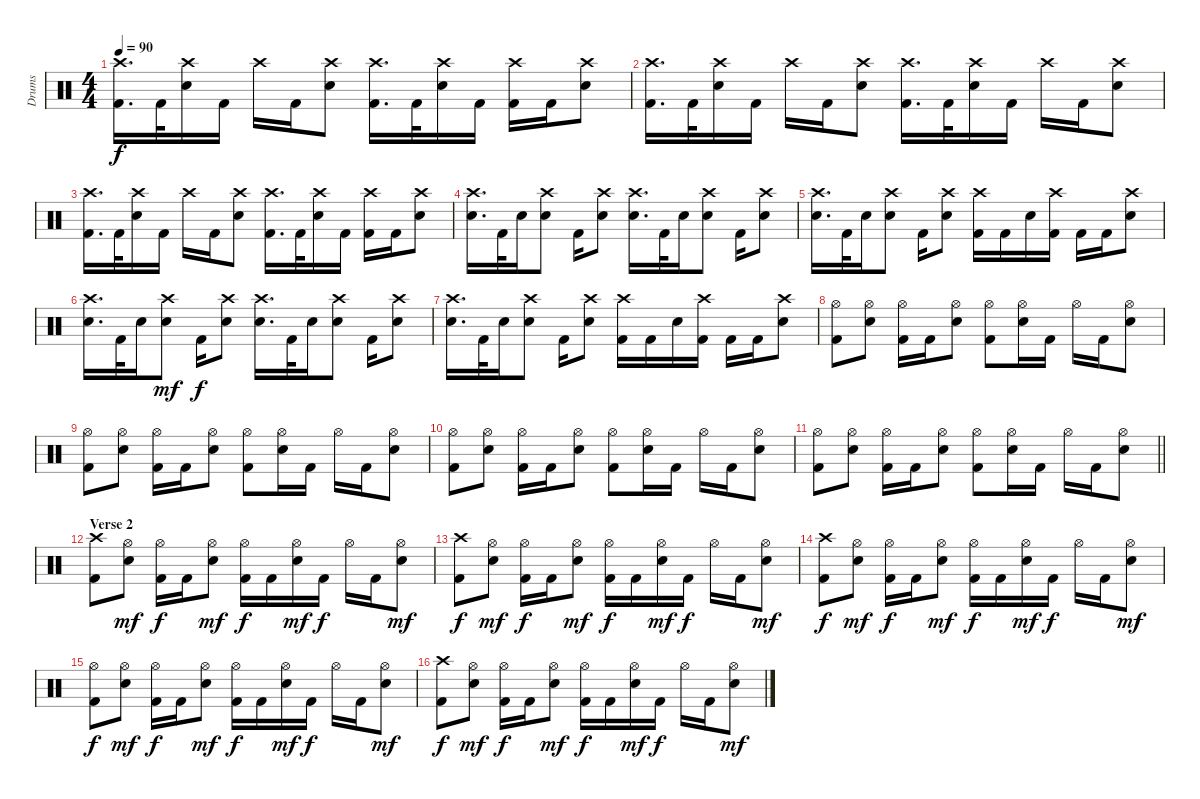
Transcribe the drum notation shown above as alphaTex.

\track ("Drums" "Drums") {instrument percussion}
\staff {score}
\articulation defaults
\ts (4 4)
\tempo 90
\clef neutral
\ks c
("Crash high (hit)" "Kick (hit) 2").16{d dy f} "Kick (hit) 2".32 ("Crash high (hit)" "Snare (hit) 2").16 "Kick (hit) 2".16 "Crash high (hit)".16 "Kick (hit) 2".16 ("Crash high (hit)" "Snare (hit) 2").8 ("Crash high (hit)" "Kick (hit) 2").16{d} "Kick (hit) 2".32 ("Crash high (hit)" "Snare (hit) 2").16 "Kick (hit) 2".16 ("Crash high (hit)" "Kick (hit) 2").16 "Kick (hit) 2".16 ("Crash high (hit)" "Snare (hit) 2").8 |
("Crash high (hit)" "Kick (hit) 2").16{d} "Kick (hit) 2".32 ("Crash high (hit)" "Snare (hit) 2").16 "Kick (hit) 2".16 "Crash high (hit)".16 "Kick (hit) 2".16 ("Crash high (hit)" "Snare (hit) 2").8 ("Crash high (hit)" "Kick (hit) 2").16{d} "Kick (hit) 2".32 ("Crash high (hit)" "Snare (hit) 2").16 "Kick (hit) 2".16 "Crash high (hit)".16 "Kick (hit) 2".16 ("Crash high (hit)" "Snare (hit) 2").8 |
("Crash high (hit)" "Kick (hit) 2").16{d} "Kick (hit) 2".32 ("Crash high (hit)" "Snare (hit) 2").16 "Kick (hit) 2".16 "Crash high (hit)".16 "Kick (hit) 2".16 ("Crash high (hit)" "Snare (hit) 2").8 ("Crash high (hit)" "Kick (hit) 2").16{d} "Kick (hit) 2".32 ("Crash high (hit)" "Snare (hit) 2").16 "Kick (hit) 2".16 ("Crash high (hit)" "Kick (hit) 2").16 "Kick (hit) 2".16 ("Crash high (hit)" "Snare (hit) 2").8 |
("Crash high (hit)" "Snare (hit) 2").16{d} "Kick (hit) 2".32 "Snare (hit) 2".16 ("Crash high (hit)" "Snare (hit) 2").8 "Kick (hit) 2".16 ("Crash high (hit)" "Snare (hit) 2").8 ("Crash high (hit)" "Snare (hit) 2").16{d} "Kick (hit) 2".32 "Snare (hit) 2".16 ("Crash high (hit)" "Snare (hit) 2").8 "Kick (hit) 2".16 ("Crash high (hit)" "Snare (hit) 2").8 |
("Crash high (hit)" "Snare (hit) 2").16{d} "Kick (hit) 2".32 "Snare (hit) 2".16 ("Crash high (hit)" "Snare (hit) 2").8 "Kick (hit) 2".16 ("Crash high (hit)" "Snare (hit) 2").8 ("Crash high (hit)" "Kick (hit) 2").16 "Kick (hit) 2".16 "Snare (hit) 2".16 ("Crash high (hit)" "Kick (hit) 2").16 "Kick (hit) 2".16 "Kick (hit) 2".16 ("Crash high (hit)" "Snare (hit) 2").8 |
("Crash high (hit)" "Snare (hit) 2").16{d} "Kick (hit) 2".32 "Snare (hit) 2".16 ("Crash high (hit)" "Snare (hit) 2").8{dy mf} "Kick (hit) 2".16{dy f} ("Crash high (hit)" "Snare (hit) 2").8 ("Crash high (hit)" "Snare (hit) 2").16{d} "Kick (hit) 2".32 "Snare (hit) 2".16 ("Crash high (hit)" "Snare (hit) 2").8 "Kick (hit) 2".16 ("Crash high (hit)" "Snare (hit) 2").8 |
("Crash high (hit)" "Snare (hit) 2").16{d} "Kick (hit) 2".32 "Snare (hit) 2".16 ("Crash high (hit)" "Snare (hit) 2").8 "Kick (hit) 2".16 ("Crash high (hit)" "Snare (hit) 2").8 ("Crash high (hit)" "Kick (hit) 2").16 "Kick (hit) 2".16 "Snare (hit) 2".16 ("Crash high (hit)" "Kick (hit) 2").16 "Kick (hit) 2".16 "Kick (hit) 2".16 ("Crash high (hit)" "Snare (hit) 2").8 |
("Hi-Hat (open)" "Kick (hit) 2").8 ("Hi-Hat (open)" "Snare (hit) 2").8 ("Hi-Hat (open)" "Kick (hit) 2").16 "Kick (hit) 2".16 ("Hi-Hat (open)" "Snare (hit) 2").8 ("Hi-Hat (open)" "Kick (hit) 2").8 ("Hi-Hat (open)" "Snare (hit) 2").16 "Kick (hit) 2".16 "Hi-Hat (open)".16 "Kick (hit) 2".16 ("Hi-Hat (open)" "Snare (hit) 2").8 |
("Hi-Hat (open)" "Kick (hit) 2").8 ("Hi-Hat (open)" "Snare (hit) 2").8 ("Hi-Hat (open)" "Kick (hit) 2").16 "Kick (hit) 2".16 ("Hi-Hat (open)" "Snare (hit) 2").8 ("Hi-Hat (open)" "Kick (hit) 2").8 ("Hi-Hat (open)" "Snare (hit) 2").16 "Kick (hit) 2".16 "Hi-Hat (open)".16 "Kick (hit) 2".16 ("Hi-Hat (open)" "Snare (hit) 2").8 |
("Hi-Hat (open)" "Kick (hit) 2").8 ("Hi-Hat (open)" "Snare (hit) 2").8 ("Hi-Hat (open)" "Kick (hit) 2").16 "Kick (hit) 2".16 ("Hi-Hat (open)" "Snare (hit) 2").8 ("Hi-Hat (open)" "Kick (hit) 2").8 ("Hi-Hat (open)" "Snare (hit) 2").16 "Kick (hit) 2".16 "Hi-Hat (open)".16 "Kick (hit) 2".16 ("Hi-Hat (open)" "Snare (hit) 2").8 |
\barLineRight lightlight
("Hi-Hat (open)" "Kick (hit) 2").8 ("Hi-Hat (open)" "Snare (hit) 2").8 ("Hi-Hat (open)" "Kick (hit) 2").16 "Kick (hit) 2".16 ("Hi-Hat (open)" "Snare (hit) 2").8 ("Hi-Hat (open)" "Kick (hit) 2").8 ("Hi-Hat (open)" "Snare (hit) 2").16 "Kick (hit) 2".16 "Hi-Hat (open)".16 "Kick (hit) 2".16 ("Hi-Hat (open)" "Snare (hit) 2").8 |
\section ("" "Verse 2")
("Crash high (hit)" "Kick (hit) 2").8 ("Hi-Hat (open)" "Snare (hit) 2").8{dy mf} ("Hi-Hat (open)" "Kick (hit) 2").16{dy f} "Kick (hit) 2".16 ("Hi-Hat (open)" "Snare (hit) 2").8{dy mf} ("Hi-Hat (open)" "Kick (hit) 2").16{dy f} "Kick (hit) 2".16 ("Hi-Hat (open)" "Snare (hit) 2").16{dy mf} "Kick (hit) 2".16{dy f} "Hi-Hat (open)".16 "Kick (hit) 2".16 ("Hi-Hat (open)" "Snare (hit) 2").8{dy mf} |
("Crash high (hit)" "Kick (hit) 2").8{dy f} ("Hi-Hat (open)" "Snare (hit) 2").8{dy mf} ("Hi-Hat (open)" "Kick (hit) 2").16{dy f} "Kick (hit) 2".16 ("Hi-Hat (open)" "Snare (hit) 2").8{dy mf} ("Hi-Hat (open)" "Kick (hit) 2").16{dy f} "Kick (hit) 2".16 ("Hi-Hat (open)" "Snare (hit) 2").16{dy mf} "Kick (hit) 2".16{dy f} "Hi-Hat (open)".16 "Kick (hit) 2".16 ("Hi-Hat (open)" "Snare (hit) 2").8{dy mf} |
("Crash high (hit)" "Kick (hit) 2").8{dy f} ("Hi-Hat (open)" "Snare (hit) 2").8{dy mf} ("Hi-Hat (open)" "Kick (hit) 2").16{dy f} "Kick (hit) 2".16 ("Hi-Hat (open)" "Snare (hit) 2").8{dy mf} ("Hi-Hat (open)" "Kick (hit) 2").16{dy f} "Kick (hit) 2".16 ("Hi-Hat (open)" "Snare (hit) 2").16{dy mf} "Kick (hit) 2".16{dy f} "Hi-Hat (open)".16 "Kick (hit) 2".16 ("Hi-Hat (open)" "Snare (hit) 2").8{dy mf} |
("Hi-Hat (open)" "Kick (hit) 2").8{dy f} ("Hi-Hat (open)" "Snare (hit) 2").8{dy mf} ("Hi-Hat (open)" "Kick (hit) 2").16{dy f} "Kick (hit) 2".16 ("Hi-Hat (open)" "Snare (hit) 2").8{dy mf} ("Hi-Hat (open)" "Kick (hit) 2").16{dy f} "Kick (hit) 2".16 ("Hi-Hat (open)" "Snare (hit) 2").16{dy mf} "Kick (hit) 2".16{dy f} "Hi-Hat (open)".16 "Kick (hit) 2".16 ("Hi-Hat (open)" "Snare (hit) 2").8{dy mf} |
("Crash high (hit)" "Kick (hit) 2").8{dy f} ("Hi-Hat (open)" "Snare (hit) 2").8{dy mf} ("Hi-Hat (open)" "Kick (hit) 2").16{dy f} "Kick (hit) 2".16 ("Hi-Hat (open)" "Snare (hit) 2").8{dy mf} ("Hi-Hat (open)" "Kick (hit) 2").16{dy f} "Kick (hit) 2".16 ("Hi-Hat (open)" "Snare (hit) 2").16{dy mf} "Kick (hit) 2".16{dy f} "Hi-Hat (open)".16 "Kick (hit) 2".16 ("Hi-Hat (open)" "Snare (hit) 2").8{dy mf}
